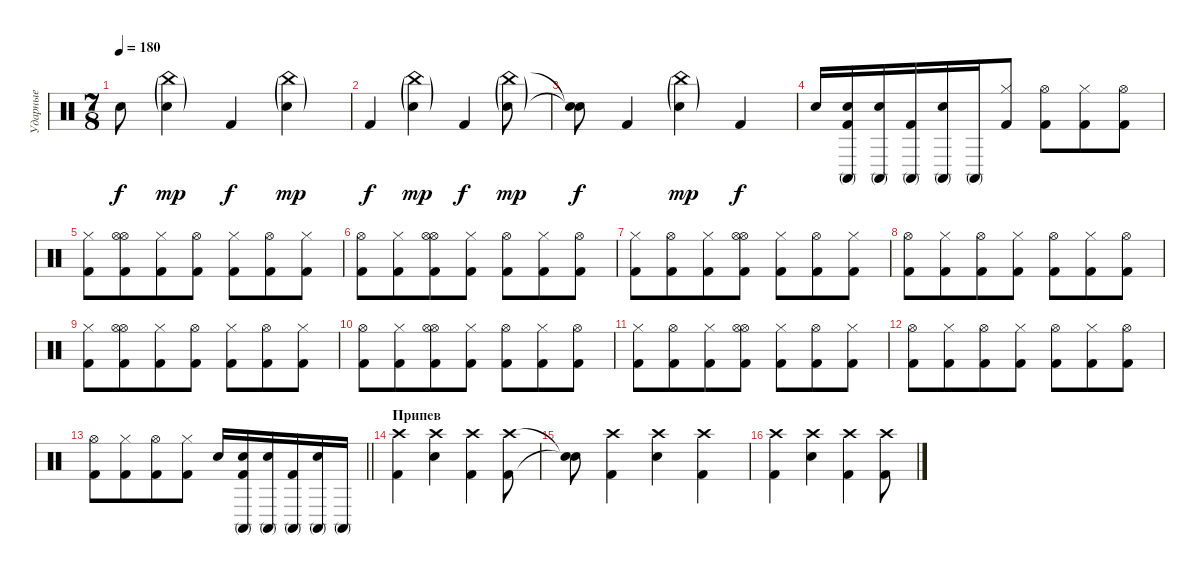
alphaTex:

\track ("Ударные" "Ударные") {instrument percussion}
\staff {score}
\articulation defaults
\ts (7 8)
\tempo 180
\clef neutral
\ks c "Snare (hit)"{t}.8{dy f}
("China (hit)"{g} "Snare (hit) 2"{g}).4{dy mp} "Kick (hit) 2".4{dy f} ("China (hit)"{g} "Snare (hit) 2"{g}).4{dy mp} |
"Kick (hit) 2".4{dy f} ("China (hit)"{g} "Snare (hit) 2"{g}).4{dy mp} "Kick (hit) 2".4{dy f} ("China (hit)"{g} "Snare (hit) 2"{g}).8{dy mp} |
("Snare (hit)"{t} "Snare (hit)"{t}).8{dy f} "Kick (hit) 2".4 ("China (hit)"{g} "Snare (hit) 2"{g}).4{dy mp} "Kick (hit) 2".4{dy f} |
"Electric Snare (hit)".16 ("Electric Snare (hit)" "Conga high (mute)" "Kick (hit) 2").16 ("Electric Snare (hit)" "Conga high (mute)").16 ("Conga high (mute)" "Kick (hit) 2").16 ("Electric Snare (hit)" "Conga high (mute)").16 "Conga high (mute)".16 ("Hi-Hat (closed)" "Kick (hit) 2").8 ("Hi-Hat (open)" "Kick (hit) 2").8 ("Hi-Hat (closed)" "Kick (hit) 2").8 ("Hi-Hat (open)" "Kick (hit) 2").8 |
("Hi-Hat (closed)" "Kick (hit) 2").8 ("Hi-Hat (open)" "Hi-Hat (open)" "Kick (hit) 2").8 ("Hi-Hat (closed)" "Kick (hit) 2").8 ("Hi-Hat (open)" "Kick (hit) 2").8 ("Hi-Hat (closed)" "Kick (hit) 2").8 ("Hi-Hat (open)" "Kick (hit) 2").8 ("Hi-Hat (closed)" "Kick (hit) 2").8 |
("Hi-Hat (open)" "Kick (hit) 2").8 ("Hi-Hat (closed)" "Kick (hit) 2").8 ("Hi-Hat (open)" "Hi-Hat (open)" "Kick (hit) 2").8 ("Hi-Hat (closed)" "Kick (hit) 2").8 ("Hi-Hat (open)" "Kick (hit) 2").8 ("Hi-Hat (closed)" "Kick (hit) 2").8 ("Hi-Hat (open)" "Kick (hit) 2").8 |
("Hi-Hat (closed)" "Kick (hit) 2").8 ("Hi-Hat (open)" "Kick (hit) 2").8 ("Hi-Hat (closed)" "Kick (hit) 2").8 ("Hi-Hat (open)" "Hi-Hat (open)" "Kick (hit) 2").8 ("Hi-Hat (closed)" "Kick (hit) 2").8 ("Hi-Hat (open)" "Kick (hit) 2").8 ("Hi-Hat (closed)" "Kick (hit) 2").8 |
("Hi-Hat (open)" "Kick (hit) 2").8 ("Hi-Hat (closed)" "Kick (hit) 2").8 ("Hi-Hat (open)" "Kick (hit) 2").8 ("Hi-Hat (closed)" "Kick (hit) 2").8 ("Hi-Hat (open)" "Kick (hit) 2").8 ("Hi-Hat (closed)" "Kick (hit) 2").8 ("Hi-Hat (open)" "Kick (hit) 2").8 |
("Hi-Hat (closed)" "Kick (hit) 2").8 ("Hi-Hat (open)" "Hi-Hat (open)" "Kick (hit) 2").8 ("Hi-Hat (closed)" "Kick (hit) 2").8 ("Hi-Hat (open)" "Kick (hit) 2").8 ("Hi-Hat (closed)" "Kick (hit) 2").8 ("Hi-Hat (open)" "Kick (hit) 2").8 ("Hi-Hat (closed)" "Kick (hit) 2").8 |
("Hi-Hat (open)" "Kick (hit) 2").8 ("Hi-Hat (closed)" "Kick (hit) 2").8 ("Hi-Hat (open)" "Hi-Hat (open)" "Kick (hit) 2").8 ("Hi-Hat (closed)" "Kick (hit) 2").8 ("Hi-Hat (open)" "Kick (hit) 2").8 ("Hi-Hat (closed)" "Kick (hit) 2").8 ("Hi-Hat (open)" "Kick (hit) 2").8 |
("Hi-Hat (closed)" "Kick (hit) 2").8 ("Hi-Hat (open)" "Kick (hit) 2").8 ("Hi-Hat (closed)" "Kick (hit) 2").8 ("Hi-Hat (open)" "Hi-Hat (open)" "Kick (hit) 2").8 ("Hi-Hat (closed)" "Kick (hit) 2").8 ("Hi-Hat (open)" "Kick (hit) 2").8 ("Hi-Hat (closed)" "Kick (hit) 2").8 |
("Hi-Hat (open)" "Kick (hit) 2").8 ("Hi-Hat (closed)" "Kick (hit) 2").8 ("Hi-Hat (open)" "Kick (hit) 2").8 ("Hi-Hat (closed)" "Kick (hit) 2").8 ("Hi-Hat (open)" "Kick (hit) 2").8 ("Hi-Hat (closed)" "Kick (hit) 2").8 ("Hi-Hat (open)" "Kick (hit) 2").8 |
\barLineRight lightlight
("Hi-Hat (open)" "Kick (hit) 2").8 ("Hi-Hat (closed)" "Kick (hit) 2").8 ("Hi-Hat (open)" "Kick (hit) 2").8 ("Hi-Hat (closed)" "Kick (hit) 2").8 "Electric Snare (hit)".16 ("Electric Snare (hit)" "Conga high (mute)" "Kick (hit) 2").16 ("Electric Snare (hit)" "Conga high (mute)").16 ("Conga high (mute)" "Kick (hit) 2").16 ("Electric Snare (hit)" "Conga high (mute)").16 "Conga high (mute)".16 |
\section ("" "Припев")
("Crash high (hit)" "Kick (hit) 2").4 ("Crash high (hit)" "Snare (hit) 2").4 ("Crash high (hit)" "Kick (hit) 2").4 ("Crash high (hit)" "Kick (hit) 2").8 |
("Snare (hit)"{t} "Snare (hit)"{t}).8 ("Crash high (hit)" "Kick (hit) 2").4 ("Crash high (hit)" "Snare (hit) 2").4 ("Crash high (hit)" "Kick (hit) 2").4 |
("Crash high (hit)" "Kick (hit) 2").4 ("Crash high (hit)" "Snare (hit) 2").4 ("Crash high (hit)" "Kick (hit) 2").4 ("Crash high (hit)" "Kick (hit) 2").8
